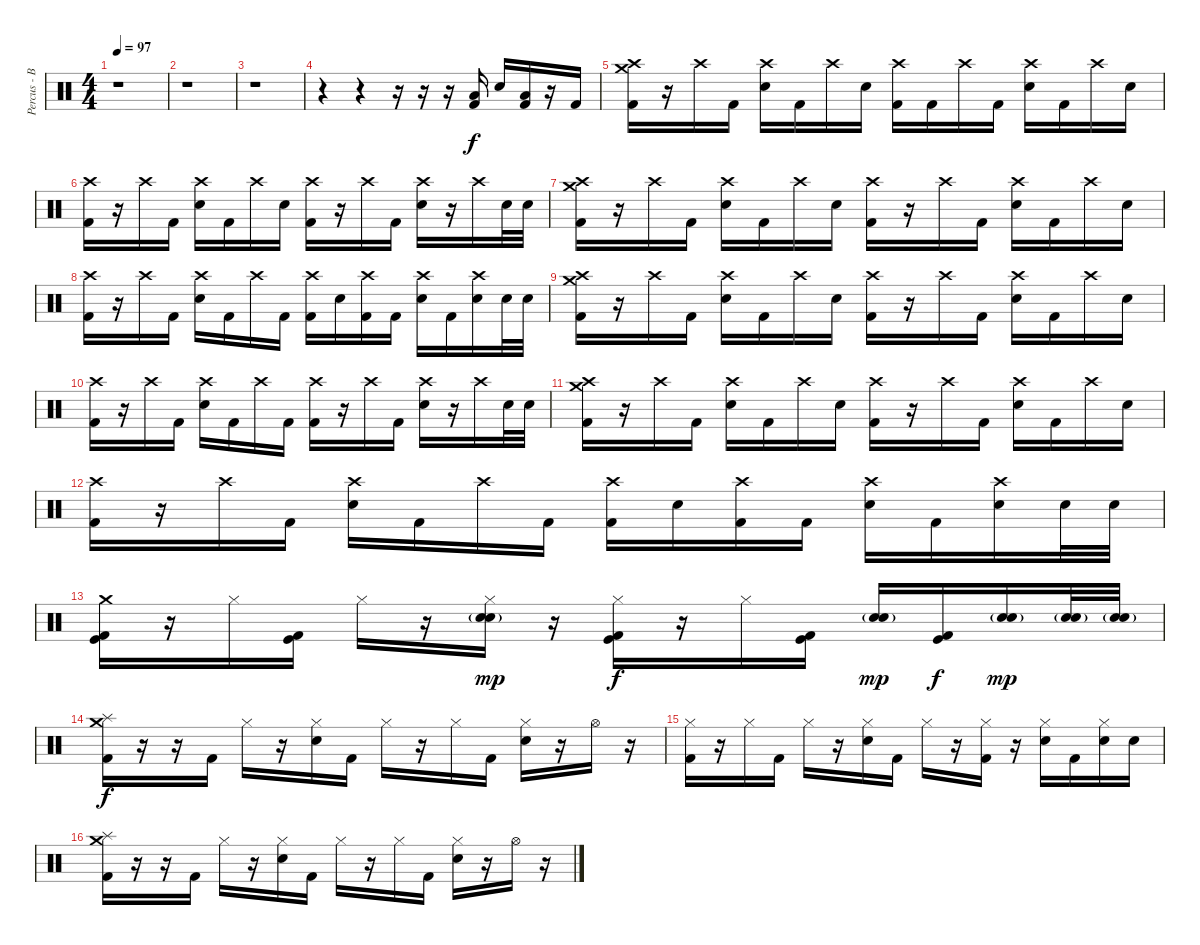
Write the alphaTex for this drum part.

\track ("Percus - Ben" "Percus - B") {instrument percussion}
\staff {score}
\articulation defaults
\ts (4 4)
\tempo 97
\clef neutral
\ks c
r.1{dy f} |
r.1 |
r.1 |
r.4 r.4 r.16 r.16 r.16 ("Low Tom (hit)" "Kick (hit) 2").16 "Electric Snare (hit)".16 ("Low Tom (hit)" "Kick (hit) 2").16 r.16 "Kick (hit) 2".16 |
("Crash high (hit)" "Crash medium (hit)" "Kick (hit) 2").16 r.16 "Crash high (hit)".16 "Kick (hit) 2".16 ("Crash high (hit)" "Electric Snare (hit)").16 "Kick (hit) 2".16 "Crash high (hit)".16 "Electric Snare (hit)".16 ("Crash high (hit)" "Kick (hit) 2").16 "Kick (hit) 2".16 "Crash high (hit)".16 "Kick (hit) 2".16 ("Crash high (hit)" "Electric Snare (hit)").16 "Kick (hit) 2".16 "Crash high (hit)".16 "Electric Snare (hit)".16 |
("Crash high (hit)" "Kick (hit) 2").16 r.16 "Crash high (hit)".16 "Kick (hit) 2".16 ("Crash high (hit)" "Electric Snare (hit)").16 "Kick (hit) 2".16 "Crash high (hit)".16 "Electric Snare (hit)".16 ("Crash high (hit)" "Kick (hit) 2").16 r.16 "Crash high (hit)".16 "Kick (hit) 2".16 ("Crash high (hit)" "Electric Snare (hit)").16 r.16 "Crash high (hit)".16 "Electric Snare (hit)".32 "Electric Snare (hit)".32 |
("Crash high (hit)" "Crash medium (hit)" "Kick (hit) 2").16 r.16 "Crash high (hit)".16 "Kick (hit) 2".16 ("Crash high (hit)" "Electric Snare (hit)").16 "Kick (hit) 2".16 "Crash high (hit)".16 "Electric Snare (hit)".16 ("Crash high (hit)" "Kick (hit) 2").16 r.16 "Crash high (hit)".16 "Kick (hit) 2".16 ("Crash high (hit)" "Electric Snare (hit)").16 "Kick (hit) 2".16 "Crash high (hit)".16 "Electric Snare (hit)".16 |
("Crash high (hit)" "Kick (hit) 2").16 r.16 "Crash high (hit)".16 "Kick (hit) 2".16 ("Crash high (hit)" "Electric Snare (hit)").16 "Kick (hit) 2".16 "Crash high (hit)".16 "Kick (hit) 2".16 ("Crash high (hit)" "Kick (hit) 2").16 "Electric Snare (hit)".16 ("Crash high (hit)" "Kick (hit) 2").16 "Kick (hit) 2".16 ("Crash high (hit)" "Electric Snare (hit)").16 "Kick (hit) 2".16 ("Crash high (hit)" "Electric Snare (hit)").16 "Electric Snare (hit)".32 "Electric Snare (hit)".32 |
("Crash high (hit)" "Crash medium (hit)" "Kick (hit) 2").16 r.16 "Crash high (hit)".16 "Kick (hit) 2".16 ("Crash high (hit)" "Electric Snare (hit)").16 "Kick (hit) 2".16 "Crash high (hit)".16 "Electric Snare (hit)".16 ("Crash high (hit)" "Kick (hit) 2").16 r.16 "Crash high (hit)".16 "Kick (hit) 2".16 ("Crash high (hit)" "Electric Snare (hit)").16 "Kick (hit) 2".16 "Crash high (hit)".16 "Electric Snare (hit)".16 |
("Crash high (hit)" "Kick (hit) 2").16 r.16 "Crash high (hit)".16 "Kick (hit) 2".16 ("Crash high (hit)" "Electric Snare (hit)").16 "Kick (hit) 2".16 "Crash high (hit)".16 "Kick (hit) 2".16 ("Crash high (hit)" "Kick (hit) 2").16 r.16 "Crash high (hit)".16 "Kick (hit) 2".16 ("Crash high (hit)" "Electric Snare (hit)").16 r.16 "Crash high (hit)".16 "Electric Snare (hit)".32 "Electric Snare (hit)".32 |
("Crash high (hit)" "Crash medium (hit)" "Kick (hit) 2").16 r.16 "Crash high (hit)".16 "Kick (hit) 2".16 ("Crash high (hit)" "Electric Snare (hit)").16 "Kick (hit) 2".16 "Crash high (hit)".16 "Electric Snare (hit)".16 ("Crash high (hit)" "Kick (hit) 2").16 r.16 "Crash high (hit)".16 "Kick (hit) 2".16 ("Crash high (hit)" "Electric Snare (hit)").16 "Kick (hit) 2".16 "Crash high (hit)".16 "Electric Snare (hit)".16 |
("Crash high (hit)" "Kick (hit) 2").16 r.16 "Crash high (hit)".16 "Kick (hit) 2".16 ("Crash high (hit)" "Electric Snare (hit)").16 "Kick (hit) 2".16 "Crash high (hit)".16 "Kick (hit) 2".16 ("Crash high (hit)" "Kick (hit) 2").16 "Electric Snare (hit)".16 ("Crash high (hit)" "Kick (hit) 2").16 "Kick (hit) 2".16 ("Crash high (hit)" "Electric Snare (hit)").16 "Kick (hit) 2".16 ("Crash high (hit)" "Electric Snare (hit)").16 "Electric Snare (hit)".32 "Electric Snare (hit)".32 |
("Crash medium (hit)" "Kick (hit)" "Kick (hit) 2").16 r.16 "Hi-Hat (closed)".16 ("Kick (hit)" "Kick (hit) 2").16 "Hi-Hat (closed)".16 r.16 ("Hi-Hat (closed)" "Snare (hit) 2"{g} "Electric Snare (hit)").16{dy mp} r.16 ("Hi-Hat (closed)" "Kick (hit)" "Kick (hit) 2").16{dy f} r.16 "Hi-Hat (closed)".16 ("Kick (hit)" "Kick (hit) 2").16 ("Snare (hit) 2"{g} "Electric Snare (hit)").16{dy mp} ("Kick (hit)" "Kick (hit) 2").16{dy f} ("Snare (hit) 2"{g} "Electric Snare (hit)").16{dy mp} ("Snare (hit) 2"{g} "Electric Snare (hit)").32 ("Snare (hit) 2"{g} "Electric Snare (hit)").32 |
("Splash (hit)" "Crash medium (hit)" "Kick (hit) 2").16{dy f} r.16 r.16 "Kick (hit) 2".16 "Hi-Hat (closed)".16 r.16 ("Hi-Hat (closed)" "Electric Snare (hit)").16 "Kick (hit) 2".16 "Hi-Hat (closed)".16 r.16 "Hi-Hat (closed)".16 "Kick (hit) 2".16 ("Hi-Hat (closed)" "Electric Snare (hit)").16 r.16 "Hi-Hat (open)".16 r.16 |
("Hi-Hat (closed)" "Kick (hit) 2").16 r.16 "Hi-Hat (closed)".16 "Kick (hit) 2".16 "Hi-Hat (closed)".16 r.16 ("Hi-Hat (closed)" "Electric Snare (hit)").16 "Kick (hit) 2".16 "Hi-Hat (closed)".16 r.16 ("Hi-Hat (closed)" "Kick (hit) 2").16 r.16 ("Hi-Hat (closed)" "Electric Snare (hit)").16 "Kick (hit) 2".16 ("Hi-Hat (closed)" "Electric Snare (hit)").16 "Electric Snare (hit)".16 |
("Splash (hit)" "Crash medium (hit)" "Kick (hit) 2").16 r.16 r.16 "Kick (hit) 2".16 "Hi-Hat (closed)".16 r.16 ("Hi-Hat (closed)" "Electric Snare (hit)").16 "Kick (hit) 2".16 "Hi-Hat (closed)".16 r.16 "Hi-Hat (closed)".16 "Kick (hit) 2".16 ("Hi-Hat (closed)" "Electric Snare (hit)").16 r.16 "Hi-Hat (open)".16 r.16
